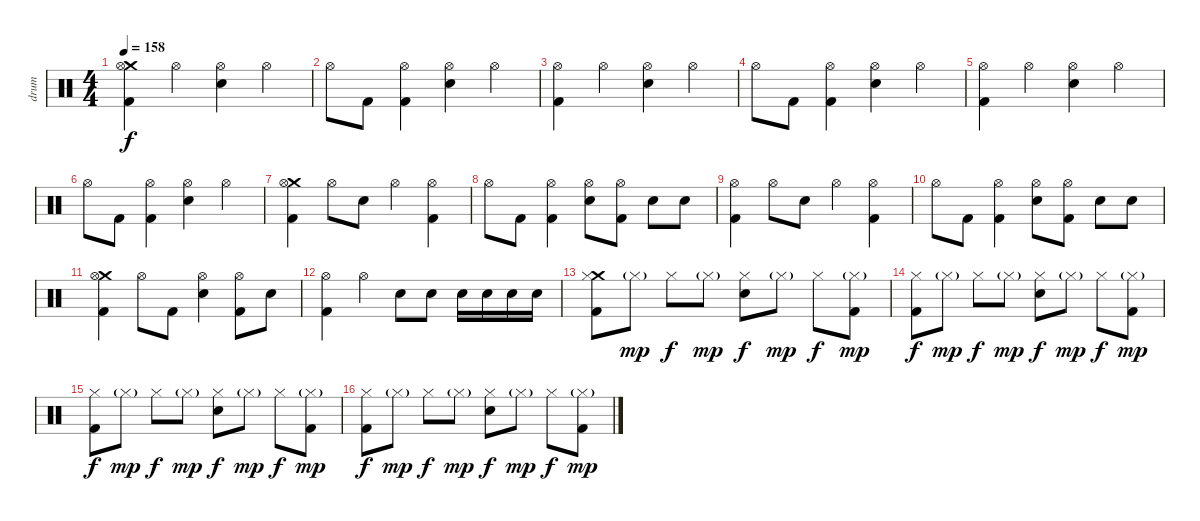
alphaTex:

\track ("drum" "drum") {instrument percussion}
\staff {score}
\articulation defaults
\ts (4 4)
\tempo 158
\clef neutral
\ks c
("Crash medium (hit)" "Hi-Hat (open)" "Kick (hit) 2").4{dy f} "Hi-Hat (open)".4 ("Hi-Hat (open)" "Electric Snare (hit)").4 "Hi-Hat (open)".4 |
"Hi-Hat (open)".8 "Kick (hit) 2".8 ("Hi-Hat (open)" "Kick (hit) 2").4 ("Hi-Hat (open)" "Electric Snare (hit)").4 "Hi-Hat (open)".4 |
("Hi-Hat (open)" "Kick (hit) 2").4 "Hi-Hat (open)".4 ("Hi-Hat (open)" "Electric Snare (hit)").4 "Hi-Hat (open)".4 |
"Hi-Hat (open)".8 "Kick (hit) 2".8 ("Hi-Hat (open)" "Kick (hit) 2").4 ("Hi-Hat (open)" "Electric Snare (hit)").4 "Hi-Hat (open)".4 |
("Hi-Hat (open)" "Kick (hit) 2").4 "Hi-Hat (open)".4 ("Hi-Hat (open)" "Electric Snare (hit)").4 "Hi-Hat (open)".4 |
"Hi-Hat (open)".8 "Kick (hit) 2".8 ("Hi-Hat (open)" "Kick (hit) 2").4 ("Hi-Hat (open)" "Electric Snare (hit)").4 "Hi-Hat (open)".4 |
("Crash medium (hit)" "Hi-Hat (open)" "Kick (hit) 2").4 "Hi-Hat (open)".8 "Electric Snare (hit)".8 "Hi-Hat (open)".4 ("Hi-Hat (open)" "Kick (hit) 2").4 |
"Hi-Hat (open)".8 "Kick (hit) 2".8 ("Hi-Hat (open)" "Kick (hit) 2").4 ("Hi-Hat (open)" "Electric Snare (hit)").8 ("Hi-Hat (open)" "Kick (hit) 2").8 "Electric Snare (hit)".8 "Electric Snare (hit)".8 |
("Hi-Hat (open)" "Kick (hit) 2").4 "Hi-Hat (open)".8 "Electric Snare (hit)".8 "Hi-Hat (open)".4 ("Hi-Hat (open)" "Kick (hit) 2").4 |
"Hi-Hat (open)".8 "Kick (hit) 2".8 ("Hi-Hat (open)" "Kick (hit) 2").4 ("Hi-Hat (open)" "Electric Snare (hit)").8 ("Hi-Hat (open)" "Kick (hit) 2").8 "Electric Snare (hit)".8 "Electric Snare (hit)".8 |
("Crash medium (hit)" "Hi-Hat (open)" "Kick (hit) 2").4 "Hi-Hat (open)".8 "Kick (hit) 2".8 ("Hi-Hat (open)" "Electric Snare (hit)").4 ("Hi-Hat (open)" "Kick (hit) 2").8 "Electric Snare (hit)".8 |
("Hi-Hat (open)" "Kick (hit) 2").4 "Hi-Hat (open)".4 "Electric Snare (hit)".8 "Electric Snare (hit)".8 "Electric Snare (hit)".16 "Electric Snare (hit)".16 "Electric Snare (hit)".16 "Electric Snare (hit)".16 |
("Crash medium (hit)" "Hi-Hat (closed)" "Kick (hit) 2").8 "Hi-Hat (closed)"{g}.8{dy mp} "Hi-Hat (closed)".8{dy f} "Hi-Hat (closed)"{g}.8{dy mp} ("Hi-Hat (closed)" "Electric Snare (hit)").8{dy f} "Hi-Hat (closed)"{g}.8{dy mp} "Hi-Hat (closed)".8{dy f} ("Hi-Hat (closed)"{g} "Kick (hit) 2").8{dy mp} |
("Hi-Hat (closed)" "Kick (hit) 2").8{dy f} "Hi-Hat (closed)"{g}.8{dy mp} "Hi-Hat (closed)".8{dy f} "Hi-Hat (closed)"{g}.8{dy mp} ("Hi-Hat (closed)" "Electric Snare (hit)").8{dy f} "Hi-Hat (closed)"{g}.8{dy mp} "Hi-Hat (closed)".8{dy f} ("Hi-Hat (closed)"{g} "Kick (hit) 2").8{dy mp} |
("Hi-Hat (closed)" "Kick (hit) 2").8{dy f} "Hi-Hat (closed)"{g}.8{dy mp} "Hi-Hat (closed)".8{dy f} "Hi-Hat (closed)"{g}.8{dy mp} ("Hi-Hat (closed)" "Electric Snare (hit)").8{dy f} "Hi-Hat (closed)"{g}.8{dy mp} "Hi-Hat (closed)".8{dy f} ("Hi-Hat (closed)"{g} "Kick (hit) 2").8{dy mp} |
("Hi-Hat (closed)" "Kick (hit) 2").8{dy f} "Hi-Hat (closed)"{g}.8{dy mp} "Hi-Hat (closed)".8{dy f} "Hi-Hat (closed)"{g}.8{dy mp} ("Hi-Hat (closed)" "Electric Snare (hit)").8{dy f} "Hi-Hat (closed)"{g}.8{dy mp} "Hi-Hat (closed)".8{dy f} ("Hi-Hat (closed)"{g} "Kick (hit) 2").8{dy mp}
